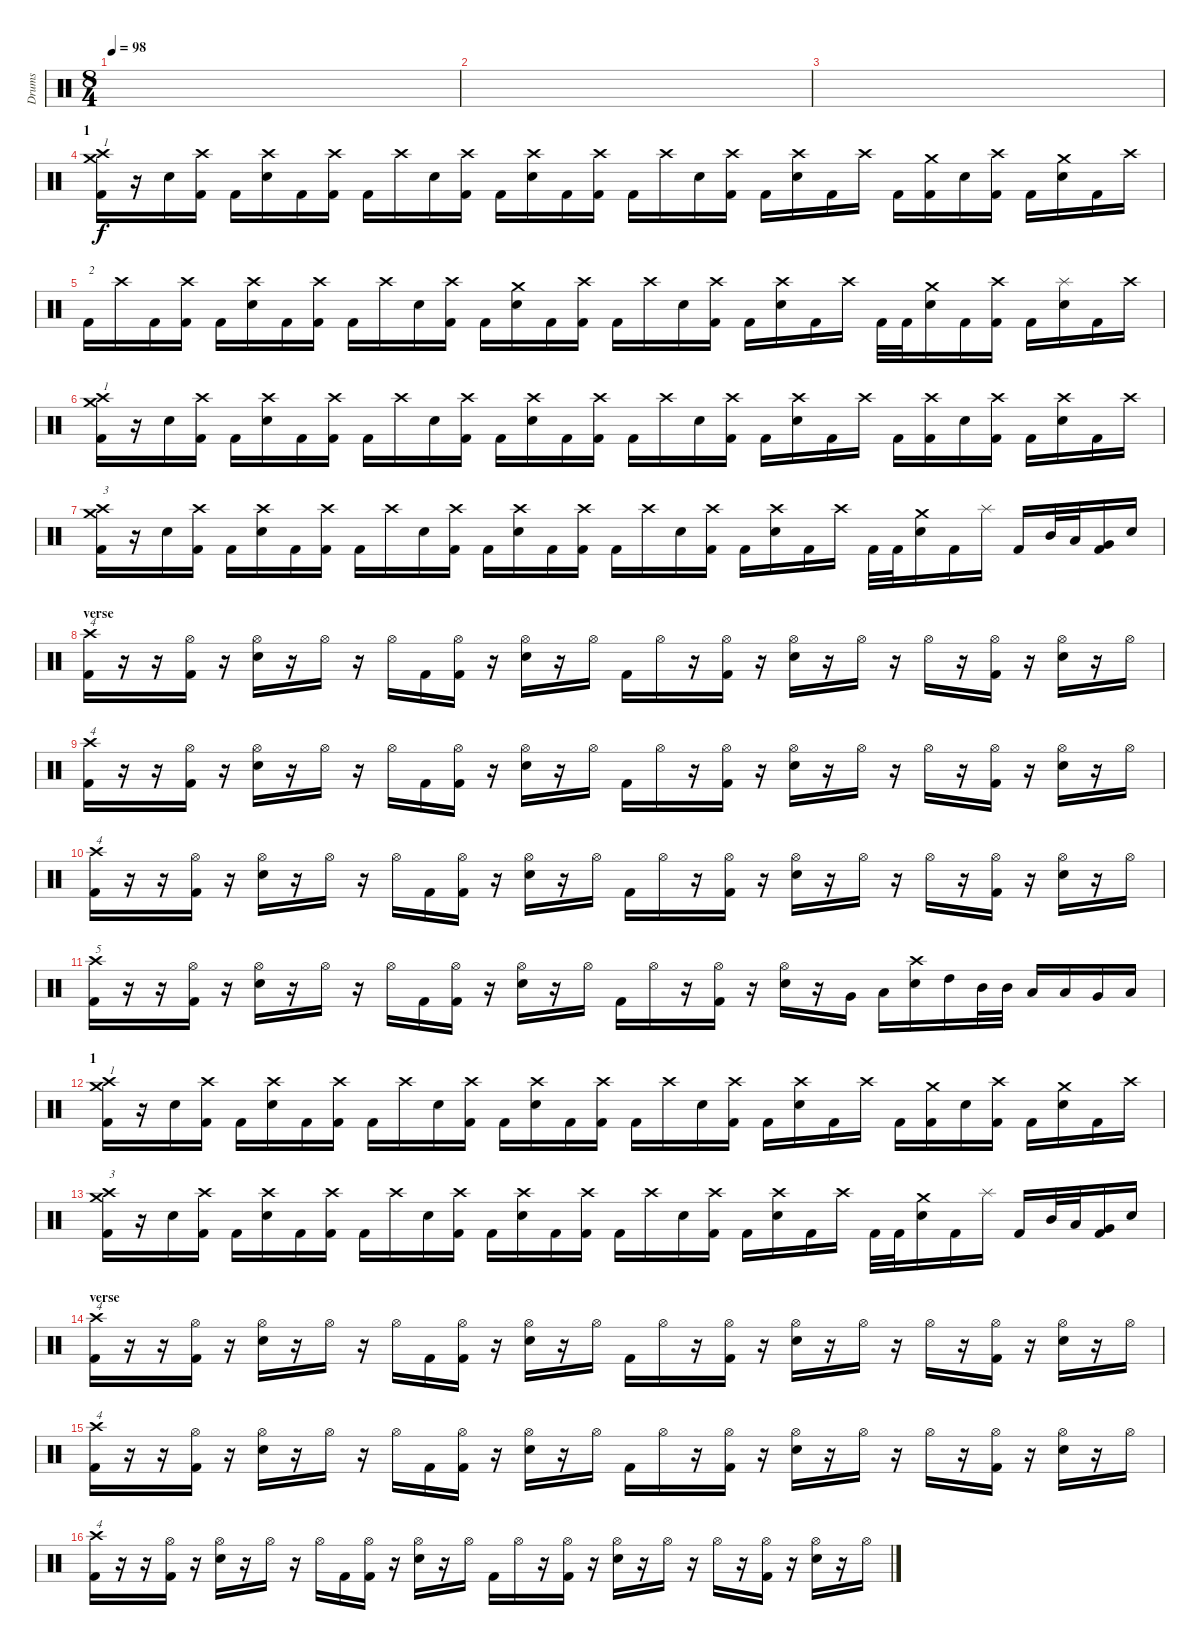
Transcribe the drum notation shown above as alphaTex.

\track ("Drums" "Drums") {instrument percussion}
\staff {score}
\articulation defaults
\ts (8 4)
\tempo 98
\clef neutral
\ks c
|
|
|
\section ("" "1")
("Crash high (hit)" "Crash medium (hit)" "Kick (hit) 2").16{txt "1"} r.16 "Snare (hit) 2".16 ("Crash high (hit)" "Kick (hit) 2").16 "Kick (hit) 2".16 ("Crash high (hit)" "Snare (hit) 2").16 "Kick (hit) 2".16 ("Crash high (hit)" "Kick (hit) 2").16 "Kick (hit) 2".16 "Crash high (hit)".16 "Snare (hit) 2".16 ("Crash high (hit)" "Kick (hit) 2").16 "Kick (hit) 2".16 ("Crash high (hit)" "Snare (hit) 2").16 "Kick (hit) 2".16 ("Crash high (hit)" "Kick (hit) 2").16 "Kick (hit) 2".16 "Crash high (hit)".16 "Snare (hit) 2".16 ("Crash high (hit)" "Kick (hit) 2").16 "Kick (hit) 2".16 ("Crash high (hit)" "Snare (hit) 2").16 "Kick (hit) 2".16 "Crash high (hit)".16 "Kick (hit) 2".16 ("Crash medium (hit)" "Kick (hit) 2").16 "Snare (hit) 2".16 ("Crash high (hit)" "Kick (hit) 2").16 "Kick (hit) 2".16 ("Crash medium (hit)" "Snare (hit) 2").16 "Kick (hit) 2".16 "Crash high (hit)".16 |
"Kick (hit) 2".16{txt "2"} "Crash high (hit)".16 "Kick (hit) 2".16 ("Crash high (hit)" "Kick (hit) 2").16 "Kick (hit) 2".16 ("Crash high (hit)" "Snare (hit) 2").16 "Kick (hit) 2".16 ("Crash high (hit)" "Kick (hit) 2").16 "Kick (hit) 2".16 "Crash high (hit)".16 "Snare (hit) 2".16 ("Crash high (hit)" "Kick (hit) 2").16 "Kick (hit) 2".16 ("Crash medium (hit)" "Snare (hit) 2").16 "Kick (hit) 2".16 ("Crash high (hit)" "Kick (hit) 2").16 "Kick (hit) 2".16 "Crash high (hit)".16 "Snare (hit) 2".16 ("Crash high (hit)" "Kick (hit) 2").16 "Kick (hit) 2".16 ("Crash high (hit)" "Snare (hit) 2").16 "Kick (hit) 2".16 "Crash high (hit)".16 "Kick (hit) 2".32 "Kick (hit) 2".32 ("Crash medium (hit)" "Snare (hit) 2").16 "Kick (hit) 2".16 ("Crash high (hit)" "Kick (hit) 2").16 "Kick (hit) 2".16 ("Splash (hit)" "Snare (hit) 2").16 "Kick (hit) 2".16 "Crash high (hit)".16 |
("Crash high (hit)" "Crash medium (hit)" "Kick (hit) 2").16{txt "1"} r.16 "Snare (hit) 2".16 ("Crash high (hit)" "Kick (hit) 2").16 "Kick (hit) 2".16 ("Crash high (hit)" "Snare (hit) 2").16 "Kick (hit) 2".16 ("Crash high (hit)" "Kick (hit) 2").16 "Kick (hit) 2".16 "Crash high (hit)".16 "Snare (hit) 2".16 ("Crash high (hit)" "Kick (hit) 2").16 "Kick (hit) 2".16 ("Crash high (hit)" "Snare (hit) 2").16 "Kick (hit) 2".16 ("Crash high (hit)" "Kick (hit) 2").16 "Kick (hit) 2".16 "Crash high (hit)".16 "Snare (hit) 2".16 ("Crash high (hit)" "Kick (hit) 2").16 "Kick (hit) 2".16 ("Crash high (hit)" "Snare (hit) 2").16 "Kick (hit) 2".16 "Crash high (hit)".16 "Kick (hit) 2".16 ("Crash high (hit)" "Kick (hit) 2").16 "Snare (hit) 2".16 ("Crash high (hit)" "Kick (hit) 2").16 "Kick (hit) 2".16 ("Crash high (hit)" "Snare (hit) 2").16 "Kick (hit) 2".16 "Crash high (hit)".16 |
("Crash high (hit)" "Crash medium (hit)" "Kick (hit) 2").16{txt "3"} r.16 "Snare (hit) 2".16 ("Crash high (hit)" "Kick (hit) 2").16 "Kick (hit) 2".16 ("Crash high (hit)" "Snare (hit) 2").16 "Kick (hit) 2".16 ("Crash high (hit)" "Kick (hit) 2").16 "Kick (hit) 2".16 "Crash high (hit)".16 "Snare (hit) 2".16 ("Crash high (hit)" "Kick (hit) 2").16 "Kick (hit) 2".16 ("Crash high (hit)" "Snare (hit) 2").16 "Kick (hit) 2".16 ("Crash high (hit)" "Kick (hit) 2").16 "Kick (hit) 2".16 "Crash high (hit)".16 "Snare (hit) 2".16 ("Crash high (hit)" "Kick (hit) 2").16 "Kick (hit) 2".16 ("Crash high (hit)" "Snare (hit) 2").16 "Kick (hit) 2".16 "Crash high (hit)".16 "Kick (hit) 2".32 "Kick (hit) 2".32 ("Crash medium (hit)" "Snare (hit) 2").16 "Kick (hit) 2".16 "Splash (hit)".16 "Kick (hit) 2".16 "Mid Tom (hit)".32 "Low Tom (hit)".32 ("Very Low Tom (hit)" "Kick (hit) 2").16 "Snare (hit) 2".16 |
\section ("" "verse")
("Crash high (hit)" "Kick (hit) 2").16{txt "4"} r.16 r.16 ("Hi-Hat (open)" "Kick (hit) 2").16 r.16 ("Hi-Hat (open)" "Snare (hit) 2").16 r.16 "Hi-Hat (open)".16 r.16 "Hi-Hat (open)".16 "Kick (hit) 2".16 ("Hi-Hat (open)" "Kick (hit) 2").16 r.16 ("Hi-Hat (open)" "Snare (hit) 2").16 r.16 "Hi-Hat (open)".16 "Kick (hit) 2".16 "Hi-Hat (open)".16 r.16 ("Hi-Hat (open)" "Kick (hit) 2").16 r.16 ("Hi-Hat (open)" "Snare (hit) 2").16 r.16 "Hi-Hat (open)".16 r.16 "Hi-Hat (open)".16 r.16 ("Hi-Hat (open)" "Kick (hit) 2").16 r.16 ("Hi-Hat (open)" "Snare (hit) 2").16 r.16 "Hi-Hat (open)".16 |
("Crash high (hit)" "Kick (hit) 2").16{txt "4"} r.16 r.16 ("Hi-Hat (open)" "Kick (hit) 2").16 r.16 ("Hi-Hat (open)" "Snare (hit) 2").16 r.16 "Hi-Hat (open)".16 r.16 "Hi-Hat (open)".16 "Kick (hit) 2".16 ("Hi-Hat (open)" "Kick (hit) 2").16 r.16 ("Hi-Hat (open)" "Snare (hit) 2").16 r.16 "Hi-Hat (open)".16 "Kick (hit) 2".16 "Hi-Hat (open)".16 r.16 ("Hi-Hat (open)" "Kick (hit) 2").16 r.16 ("Hi-Hat (open)" "Snare (hit) 2").16 r.16 "Hi-Hat (open)".16 r.16 "Hi-Hat (open)".16 r.16 ("Hi-Hat (open)" "Kick (hit) 2").16 r.16 ("Hi-Hat (open)" "Snare (hit) 2").16 r.16 "Hi-Hat (open)".16 |
("Crash high (hit)" "Kick (hit) 2").16{txt "4"} r.16 r.16 ("Hi-Hat (open)" "Kick (hit) 2").16 r.16 ("Hi-Hat (open)" "Snare (hit) 2").16 r.16 "Hi-Hat (open)".16 r.16 "Hi-Hat (open)".16 "Kick (hit) 2".16 ("Hi-Hat (open)" "Kick (hit) 2").16 r.16 ("Hi-Hat (open)" "Snare (hit) 2").16 r.16 "Hi-Hat (open)".16 "Kick (hit) 2".16 "Hi-Hat (open)".16 r.16 ("Hi-Hat (open)" "Kick (hit) 2").16 r.16 ("Hi-Hat (open)" "Snare (hit) 2").16 r.16 "Hi-Hat (open)".16 r.16 "Hi-Hat (open)".16 r.16 ("Hi-Hat (open)" "Kick (hit) 2").16 r.16 ("Hi-Hat (open)" "Snare (hit) 2").16 r.16 "Hi-Hat (open)".16 |
("Crash high (hit)" "Kick (hit) 2").16{txt "5"} r.16 r.16 ("Hi-Hat (open)" "Kick (hit) 2").16 r.16 ("Hi-Hat (open)" "Snare (hit) 2").16 r.16 "Hi-Hat (open)".16 r.16 "Hi-Hat (open)".16 "Kick (hit) 2".16 ("Hi-Hat (open)" "Kick (hit) 2").16 r.16 ("Hi-Hat (open)" "Snare (hit) 2").16 r.16 "Hi-Hat (open)".16 "Kick (hit) 2".16 "Hi-Hat (open)".16 r.16 ("Hi-Hat (open)" "Kick (hit) 2").16 r.16 ("Hi-Hat (open)" "Snare (hit) 2").16 r.16 "Very Low Tom (hit)".16 "Low Floor Tom (hit)".16 ("Crash high (hit)" "Snare (hit) 2").16 "High Tom (hit)".16 "Mid Tom (hit)".32 "Mid Tom (hit)".32 "Low Tom (hit)".16 "Low Tom (hit)".16 "Very Low Tom (hit)".16 "Low Floor Tom (hit)".16 |
\section ("" "1")
("Crash high (hit)" "Crash medium (hit)" "Kick (hit) 2").16{txt "1"} r.16 "Snare (hit) 2".16 ("Crash high (hit)" "Kick (hit) 2").16 "Kick (hit) 2".16 ("Crash high (hit)" "Snare (hit) 2").16 "Kick (hit) 2".16 ("Crash high (hit)" "Kick (hit) 2").16 "Kick (hit) 2".16 "Crash high (hit)".16 "Snare (hit) 2".16 ("Crash high (hit)" "Kick (hit) 2").16 "Kick (hit) 2".16 ("Crash high (hit)" "Snare (hit) 2").16 "Kick (hit) 2".16 ("Crash high (hit)" "Kick (hit) 2").16 "Kick (hit) 2".16 "Crash high (hit)".16 "Snare (hit) 2".16 ("Crash high (hit)" "Kick (hit) 2").16 "Kick (hit) 2".16 ("Crash high (hit)" "Snare (hit) 2").16 "Kick (hit) 2".16 "Crash high (hit)".16 "Kick (hit) 2".16 ("Crash medium (hit)" "Kick (hit) 2").16 "Snare (hit) 2".16 ("Crash high (hit)" "Kick (hit) 2").16 "Kick (hit) 2".16 ("Crash medium (hit)" "Snare (hit) 2").16 "Kick (hit) 2".16 "Crash high (hit)".16 |
("Crash high (hit)" "Crash medium (hit)" "Kick (hit) 2").16{txt "3"} r.16 "Snare (hit) 2".16 ("Crash high (hit)" "Kick (hit) 2").16 "Kick (hit) 2".16 ("Crash high (hit)" "Snare (hit) 2").16 "Kick (hit) 2".16 ("Crash high (hit)" "Kick (hit) 2").16 "Kick (hit) 2".16 "Crash high (hit)".16 "Snare (hit) 2".16 ("Crash high (hit)" "Kick (hit) 2").16 "Kick (hit) 2".16 ("Crash high (hit)" "Snare (hit) 2").16 "Kick (hit) 2".16 ("Crash high (hit)" "Kick (hit) 2").16 "Kick (hit) 2".16 "Crash high (hit)".16 "Snare (hit) 2".16 ("Crash high (hit)" "Kick (hit) 2").16 "Kick (hit) 2".16 ("Crash high (hit)" "Snare (hit) 2").16 "Kick (hit) 2".16 "Crash high (hit)".16 "Kick (hit) 2".32 "Kick (hit) 2".32 ("Crash medium (hit)" "Snare (hit) 2").16 "Kick (hit) 2".16 "Splash (hit)".16 "Kick (hit) 2".16 "Mid Tom (hit)".32 "Low Tom (hit)".32 ("Very Low Tom (hit)" "Kick (hit) 2").16 "Snare (hit) 2".16 |
\section ("" "verse")
("Crash high (hit)" "Kick (hit) 2").16{txt "4"} r.16 r.16 ("Hi-Hat (open)" "Kick (hit) 2").16 r.16 ("Hi-Hat (open)" "Snare (hit) 2").16 r.16 "Hi-Hat (open)".16 r.16 "Hi-Hat (open)".16 "Kick (hit) 2".16 ("Hi-Hat (open)" "Kick (hit) 2").16 r.16 ("Hi-Hat (open)" "Snare (hit) 2").16 r.16 "Hi-Hat (open)".16 "Kick (hit) 2".16 "Hi-Hat (open)".16 r.16 ("Hi-Hat (open)" "Kick (hit) 2").16 r.16 ("Hi-Hat (open)" "Snare (hit) 2").16 r.16 "Hi-Hat (open)".16 r.16 "Hi-Hat (open)".16 r.16 ("Hi-Hat (open)" "Kick (hit) 2").16 r.16 ("Hi-Hat (open)" "Snare (hit) 2").16 r.16 "Hi-Hat (open)".16 |
("Crash high (hit)" "Kick (hit) 2").16{txt "4"} r.16 r.16 ("Hi-Hat (open)" "Kick (hit) 2").16 r.16 ("Hi-Hat (open)" "Snare (hit) 2").16 r.16 "Hi-Hat (open)".16 r.16 "Hi-Hat (open)".16 "Kick (hit) 2".16 ("Hi-Hat (open)" "Kick (hit) 2").16 r.16 ("Hi-Hat (open)" "Snare (hit) 2").16 r.16 "Hi-Hat (open)".16 "Kick (hit) 2".16 "Hi-Hat (open)".16 r.16 ("Hi-Hat (open)" "Kick (hit) 2").16 r.16 ("Hi-Hat (open)" "Snare (hit) 2").16 r.16 "Hi-Hat (open)".16 r.16 "Hi-Hat (open)".16 r.16 ("Hi-Hat (open)" "Kick (hit) 2").16 r.16 ("Hi-Hat (open)" "Snare (hit) 2").16 r.16 "Hi-Hat (open)".16 |
("Crash high (hit)" "Kick (hit) 2").16{txt "4"} r.16 r.16 ("Hi-Hat (open)" "Kick (hit) 2").16 r.16 ("Hi-Hat (open)" "Snare (hit) 2").16 r.16 "Hi-Hat (open)".16 r.16 "Hi-Hat (open)".16 "Kick (hit) 2".16 ("Hi-Hat (open)" "Kick (hit) 2").16 r.16 ("Hi-Hat (open)" "Snare (hit) 2").16 r.16 "Hi-Hat (open)".16 "Kick (hit) 2".16 "Hi-Hat (open)".16 r.16 ("Hi-Hat (open)" "Kick (hit) 2").16 r.16 ("Hi-Hat (open)" "Snare (hit) 2").16 r.16 "Hi-Hat (open)".16 r.16 "Hi-Hat (open)".16 r.16 ("Hi-Hat (open)" "Kick (hit) 2").16 r.16 ("Hi-Hat (open)" "Snare (hit) 2").16 r.16 "Hi-Hat (open)".16
